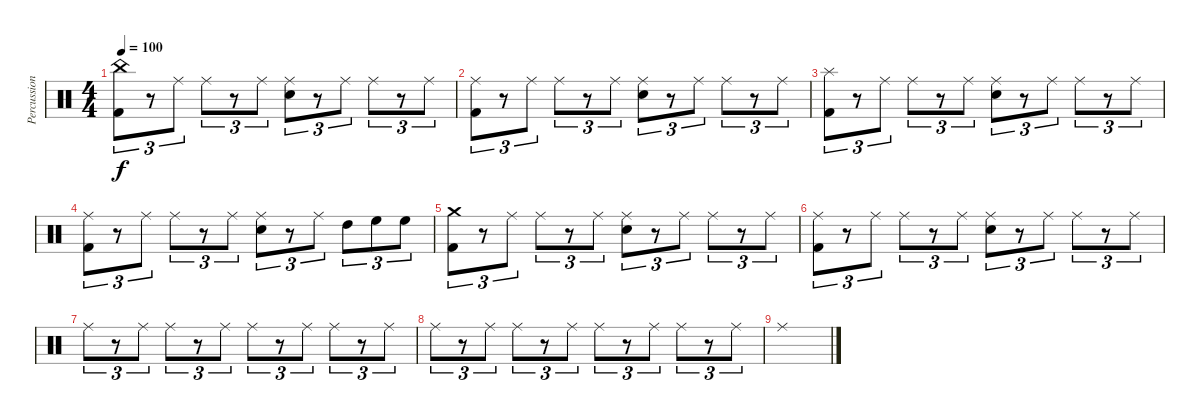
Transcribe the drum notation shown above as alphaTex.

\track ("Percussion" "Percussion") {instrument percussion}
\staff {score}
\articulation defaults
\ts (4 4)
\tempo 100
\clef neutral
\ks c
("China (hit)" "Kick (hit) 2").8{tu (3 2) dy f} r.8{tu (3 2)} "Ride (middle)".8{tu (3 2)} "Ride (middle)".8{tu (3 2)} r.8{tu (3 2)} "Ride (middle)".8{tu (3 2)} ("Ride (middle)" "Electric Snare (hit)").8{tu (3 2)} r.8{tu (3 2)} "Ride (middle)".8{tu (3 2)} "Ride (middle)".8{tu (3 2)} r.8{tu (3 2)} "Ride (middle)".8{tu (3 2)} |
("Ride (middle)" "Kick (hit) 2").8{tu (3 2)} r.8{tu (3 2)} "Ride (middle)".8{tu (3 2)} "Ride (middle)".8{tu (3 2)} r.8{tu (3 2)} "Ride (middle)".8{tu (3 2)} ("Ride (middle)" "Electric Snare (hit)").8{tu (3 2)} r.8{tu (3 2)} "Ride (middle)".8{tu (3 2)} "Ride (middle)".8{tu (3 2)} r.8{tu (3 2)} "Ride (middle)".8{tu (3 2)} |
("Splash (hit)" "Kick (hit) 2").8{tu (3 2)} r.8{tu (3 2)} "Ride (middle)".8{tu (3 2)} "Ride (middle)".8{tu (3 2)} r.8{tu (3 2)} "Ride (middle)".8{tu (3 2)} ("Ride (middle)" "Electric Snare (hit)").8{tu (3 2)} r.8{tu (3 2)} "Ride (middle)".8{tu (3 2)} "Ride (middle)".8{tu (3 2)} r.8{tu (3 2)} "Ride (middle)".8{tu (3 2)} |
("Ride (middle)" "Kick (hit) 2").8{tu (3 2)} r.8{tu (3 2)} "Ride (middle)".8{tu (3 2)} "Ride (middle)".8{tu (3 2)} r.8{tu (3 2)} "Ride (middle)".8{tu (3 2)} ("Ride (middle)" "Electric Snare (hit)").8{tu (3 2)} r.8{tu (3 2)} "Ride (middle)".8{tu (3 2)} "High Tom (hit)".8{tu (3 2)} "High Floor Tom (hit)".8{tu (3 2)} "High Floor Tom (hit)".8{tu (3 2)} |
("Crash medium (hit)" "Kick (hit) 2").8{tu (3 2)} r.8{tu (3 2)} "Ride (middle)".8{tu (3 2)} "Ride (middle)".8{tu (3 2)} r.8{tu (3 2)} "Ride (middle)".8{tu (3 2)} ("Ride (middle)" "Electric Snare (hit)").8{tu (3 2)} r.8{tu (3 2)} "Ride (middle)".8{tu (3 2)} "Ride (middle)".8{tu (3 2)} r.8{tu (3 2)} "Ride (middle)".8{tu (3 2)} |
("Ride (middle)" "Kick (hit) 2").8{tu (3 2)} r.8{tu (3 2)} "Ride (middle)".8{tu (3 2)} "Ride (middle)".8{tu (3 2)} r.8{tu (3 2)} "Ride (middle)".8{tu (3 2)} ("Ride (middle)" "Electric Snare (hit)").8{tu (3 2)} r.8{tu (3 2)} "Ride (middle)".8{tu (3 2)} "Ride (middle)".8{tu (3 2)} r.8{tu (3 2)} "Ride (middle)".8{tu (3 2)} |
"Ride (middle)".8{tu (3 2)} r.8{tu (3 2)} "Ride (middle)".8{tu (3 2)} "Ride (middle)".8{tu (3 2)} r.8{tu (3 2)} "Ride (middle)".8{tu (3 2)} "Ride (middle)".8{tu (3 2)} r.8{tu (3 2)} "Ride (middle)".8{tu (3 2)} "Ride (middle)".8{tu (3 2)} r.8{tu (3 2)} "Ride (middle)".8{tu (3 2)} |
"Ride (middle)".8{tu (3 2)} r.8{tu (3 2)} "Ride (middle)".8{tu (3 2)} "Ride (middle)".8{tu (3 2)} r.8{tu (3 2)} "Ride (middle)".8{tu (3 2)} "Ride (middle)".8{tu (3 2)} r.8{tu (3 2)} "Ride (middle)".8{tu (3 2)} "Ride (middle)".8{tu (3 2)} r.8{tu (3 2)} "Ride (middle)".8{tu (3 2)} |
"Ride (middle)".1
